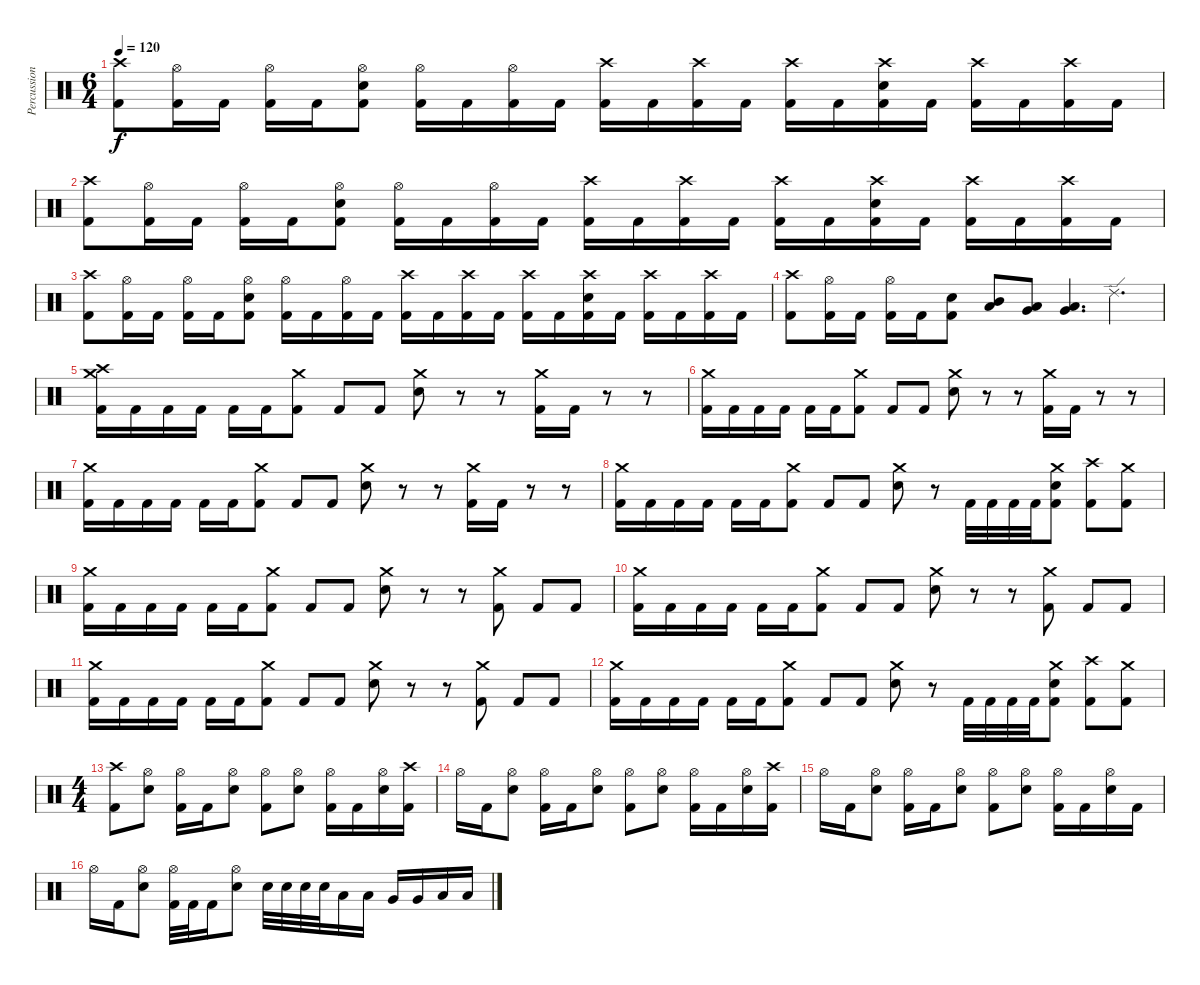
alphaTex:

\track ("Percussion" "Percussion") {instrument percussion}
\staff {score}
\articulation defaults
\ts (6 4)
\tempo 120
\clef neutral
\ks c
("Crash high (hit)" "Kick (hit) 2").8{dy f} ("Hi-Hat (open)" "Kick (hit) 2").16 "Kick (hit) 2".16 ("Hi-Hat (open)" "Kick (hit) 2").16 "Kick (hit) 2".16 ("Hi-Hat (open)" "Electric Snare (hit)" "Kick (hit) 2").8 ("Hi-Hat (open)" "Kick (hit) 2").16 "Kick (hit) 2".16 ("Hi-Hat (open)" "Kick (hit) 2").16 "Kick (hit) 2".16 ("Crash high (hit)" "Kick (hit) 2").16 "Kick (hit) 2".16 ("Crash high (hit)" "Kick (hit) 2").16 "Kick (hit) 2".16 ("Crash high (hit)" "Kick (hit) 2").16 "Kick (hit) 2".16 ("Crash high (hit)" "Electric Snare (hit)" "Kick (hit) 2").16 "Kick (hit) 2".16 ("Crash high (hit)" "Kick (hit) 2").16 "Kick (hit) 2".16 ("Crash high (hit)" "Kick (hit) 2").16 "Kick (hit) 2".16 |
("Crash high (hit)" "Kick (hit) 2").8 ("Hi-Hat (open)" "Kick (hit) 2").16 "Kick (hit) 2".16 ("Hi-Hat (open)" "Kick (hit) 2").16 "Kick (hit) 2".16 ("Hi-Hat (open)" "Electric Snare (hit)" "Kick (hit) 2").8 ("Hi-Hat (open)" "Kick (hit) 2").16 "Kick (hit) 2".16 ("Hi-Hat (open)" "Kick (hit) 2").16 "Kick (hit) 2".16 ("Crash high (hit)" "Kick (hit) 2").16 "Kick (hit) 2".16 ("Crash high (hit)" "Kick (hit) 2").16 "Kick (hit) 2".16 ("Crash high (hit)" "Kick (hit) 2").16 "Kick (hit) 2".16 ("Crash high (hit)" "Electric Snare (hit)" "Kick (hit) 2").16 "Kick (hit) 2".16 ("Crash high (hit)" "Kick (hit) 2").16 "Kick (hit) 2".16 ("Crash high (hit)" "Kick (hit) 2").16 "Kick (hit) 2".16 |
("Crash high (hit)" "Kick (hit) 2").8 ("Hi-Hat (open)" "Kick (hit) 2").16 "Kick (hit) 2".16 ("Hi-Hat (open)" "Kick (hit) 2").16 "Kick (hit) 2".16 ("Hi-Hat (open)" "Electric Snare (hit)" "Kick (hit) 2").8 ("Hi-Hat (open)" "Kick (hit) 2").16 "Kick (hit) 2".16 ("Hi-Hat (open)" "Kick (hit) 2").16 "Kick (hit) 2".16 ("Crash high (hit)" "Kick (hit) 2").16 "Kick (hit) 2".16 ("Crash high (hit)" "Kick (hit) 2").16 "Kick (hit) 2".16 ("Crash high (hit)" "Kick (hit) 2").16 "Kick (hit) 2".16 ("Crash high (hit)" "Electric Snare (hit)" "Kick (hit) 2").16 "Kick (hit) 2".16 ("Crash high (hit)" "Kick (hit) 2").16 "Kick (hit) 2".16 ("Crash high (hit)" "Kick (hit) 2").16 "Kick (hit) 2".16 |
("Crash high (hit)" "Kick (hit) 2").8 ("Hi-Hat (open)" "Kick (hit) 2").16 "Kick (hit) 2".16 ("Hi-Hat (open)" "Kick (hit) 2").16 "Kick (hit) 2".16 ("Electric Snare (hit)" "Kick (hit) 2").8 ("Mid Tom (hit)" "Low Tom (hit)").8 ("Low Tom (hit)" "Very Low Tom (hit)").8 ("Very Low Tom (hit)" "Low Floor Tom (hit)").4{d} "Ride (edge) 2".4{d} |
("Crash high (hit)" "Crash medium (hit)" "Kick (hit) 2").16 "Kick (hit) 2".16 "Kick (hit) 2".16 "Kick (hit) 2".16 "Kick (hit) 2".16 "Kick (hit) 2".16 ("Crash medium (hit)" "Kick (hit) 2").8 "Kick (hit) 2".8 "Kick (hit) 2".8 ("Crash medium (hit)" "Electric Snare (hit)").8 r.8 r.8 ("Crash medium (hit)" "Kick (hit) 2").16 "Kick (hit) 2".16 r.8 r.8 |
("Crash medium (hit)" "Kick (hit) 2").16 "Kick (hit) 2".16 "Kick (hit) 2".16 "Kick (hit) 2".16 "Kick (hit) 2".16 "Kick (hit) 2".16 ("Crash medium (hit)" "Kick (hit) 2").8 "Kick (hit) 2".8 "Kick (hit) 2".8 ("Crash medium (hit)" "Electric Snare (hit)").8 r.8 r.8 ("Crash medium (hit)" "Kick (hit) 2").16 "Kick (hit) 2".16 r.8 r.8 |
("Crash medium (hit)" "Kick (hit) 2").16 "Kick (hit) 2".16 "Kick (hit) 2".16 "Kick (hit) 2".16 "Kick (hit) 2".16 "Kick (hit) 2".16 ("Crash medium (hit)" "Kick (hit) 2").8 "Kick (hit) 2".8 "Kick (hit) 2".8 ("Crash medium (hit)" "Electric Snare (hit)").8 r.8 r.8 ("Crash medium (hit)" "Kick (hit) 2").16 "Kick (hit) 2".16 r.8 r.8 |
("Crash medium (hit)" "Kick (hit) 2").16 "Kick (hit) 2".16 "Kick (hit) 2".16 "Kick (hit) 2".16 "Kick (hit) 2".16 "Kick (hit) 2".16 ("Crash medium (hit)" "Kick (hit) 2").8 "Kick (hit) 2".8 "Kick (hit) 2".8 ("Crash medium (hit)" "Electric Snare (hit)").8 r.8 "Kick (hit) 2".32 "Kick (hit) 2".32 "Kick (hit) 2".32 "Kick (hit) 2".32 ("Crash medium (hit)" "Electric Snare (hit)" "Kick (hit) 2").8 ("Crash high (hit)" "Kick (hit) 2").8 ("Crash medium (hit)" "Kick (hit) 2").8 |
("Crash medium (hit)" "Kick (hit) 2").16 "Kick (hit) 2".16 "Kick (hit) 2".16 "Kick (hit) 2".16 "Kick (hit) 2".16 "Kick (hit) 2".16 ("Crash medium (hit)" "Kick (hit) 2").8 "Kick (hit) 2".8 "Kick (hit) 2".8 ("Crash medium (hit)" "Electric Snare (hit)").8 r.8 r.8 ("Crash medium (hit)" "Kick (hit) 2").8 "Kick (hit) 2".8 "Kick (hit) 2".8 |
("Crash medium (hit)" "Kick (hit) 2").16 "Kick (hit) 2".16 "Kick (hit) 2".16 "Kick (hit) 2".16 "Kick (hit) 2".16 "Kick (hit) 2".16 ("Crash medium (hit)" "Kick (hit) 2").8 "Kick (hit) 2".8 "Kick (hit) 2".8 ("Crash medium (hit)" "Electric Snare (hit)").8 r.8 r.8 ("Crash medium (hit)" "Kick (hit) 2").8 "Kick (hit) 2".8 "Kick (hit) 2".8 |
("Crash medium (hit)" "Kick (hit) 2").16 "Kick (hit) 2".16 "Kick (hit) 2".16 "Kick (hit) 2".16 "Kick (hit) 2".16 "Kick (hit) 2".16 ("Crash medium (hit)" "Kick (hit) 2").8 "Kick (hit) 2".8 "Kick (hit) 2".8 ("Crash medium (hit)" "Electric Snare (hit)").8 r.8 r.8 ("Crash medium (hit)" "Kick (hit) 2").8 "Kick (hit) 2".8 "Kick (hit) 2".8 |
("Crash medium (hit)" "Kick (hit) 2").16 "Kick (hit) 2".16 "Kick (hit) 2".16 "Kick (hit) 2".16 "Kick (hit) 2".16 "Kick (hit) 2".16 ("Crash medium (hit)" "Kick (hit) 2").8 "Kick (hit) 2".8 "Kick (hit) 2".8 ("Crash medium (hit)" "Electric Snare (hit)").8 r.8 "Kick (hit) 2".32 "Kick (hit) 2".32 "Kick (hit) 2".32 "Kick (hit) 2".32 ("Crash medium (hit)" "Electric Snare (hit)" "Kick (hit) 2").8 ("Crash high (hit)" "Kick (hit) 2").8 ("Crash medium (hit)" "Kick (hit) 2").8 |
\ts (4 4)
("Crash high (hit)" "Kick (hit) 2").8 ("Hi-Hat (open)" "Electric Snare (hit)").8 ("Hi-Hat (open)" "Kick (hit) 2").16 "Kick (hit) 2".16 ("Hi-Hat (open)" "Electric Snare (hit)").8 ("Hi-Hat (open)" "Kick (hit) 2").8 ("Hi-Hat (open)" "Electric Snare (hit)").8 ("Hi-Hat (open)" "Kick (hit) 2").16 "Kick (hit) 2".16 ("Hi-Hat (open)" "Electric Snare (hit)").16 ("Crash high (hit)" "Kick (hit) 2").16 |
"Hi-Hat (open)".16 "Kick (hit) 2".16 ("Hi-Hat (open)" "Electric Snare (hit)").8 ("Hi-Hat (open)" "Kick (hit) 2").16 "Kick (hit) 2".16 ("Hi-Hat (open)" "Electric Snare (hit)").8 ("Hi-Hat (open)" "Kick (hit) 2").8 ("Hi-Hat (open)" "Electric Snare (hit)").8 ("Hi-Hat (open)" "Kick (hit) 2").16 "Kick (hit) 2".16 ("Hi-Hat (open)" "Electric Snare (hit)").16 ("Crash high (hit)" "Kick (hit) 2").16 |
"Hi-Hat (open)".16 "Kick (hit) 2".16 ("Hi-Hat (open)" "Electric Snare (hit)").8 ("Hi-Hat (open)" "Kick (hit) 2").16 "Kick (hit) 2".16 ("Hi-Hat (open)" "Electric Snare (hit)").8 ("Hi-Hat (open)" "Kick (hit) 2").8 ("Hi-Hat (open)" "Electric Snare (hit)").8 ("Hi-Hat (open)" "Kick (hit) 2").16 "Kick (hit) 2".16 ("Hi-Hat (open)" "Electric Snare (hit)").16 "Kick (hit) 2".16 |
"Hi-Hat (open)".16 "Kick (hit) 2".16 ("Hi-Hat (open)" "Electric Snare (hit)").8 ("Hi-Hat (open)" "Kick (hit) 2").32 "Kick (hit) 2".32 "Kick (hit) 2".16 ("Hi-Hat (open)" "Electric Snare (hit)").8 "Electric Snare (hit)".32 "Electric Snare (hit)".32 "Electric Snare (hit)".32 "Electric Snare (hit)".32 "Low Tom (hit)".16 "Low Tom (hit)".16 "Very Low Tom (hit)".16 "Very Low Tom (hit)".16 "Low Floor Tom (hit)".16 "Low Floor Tom (hit)".16
